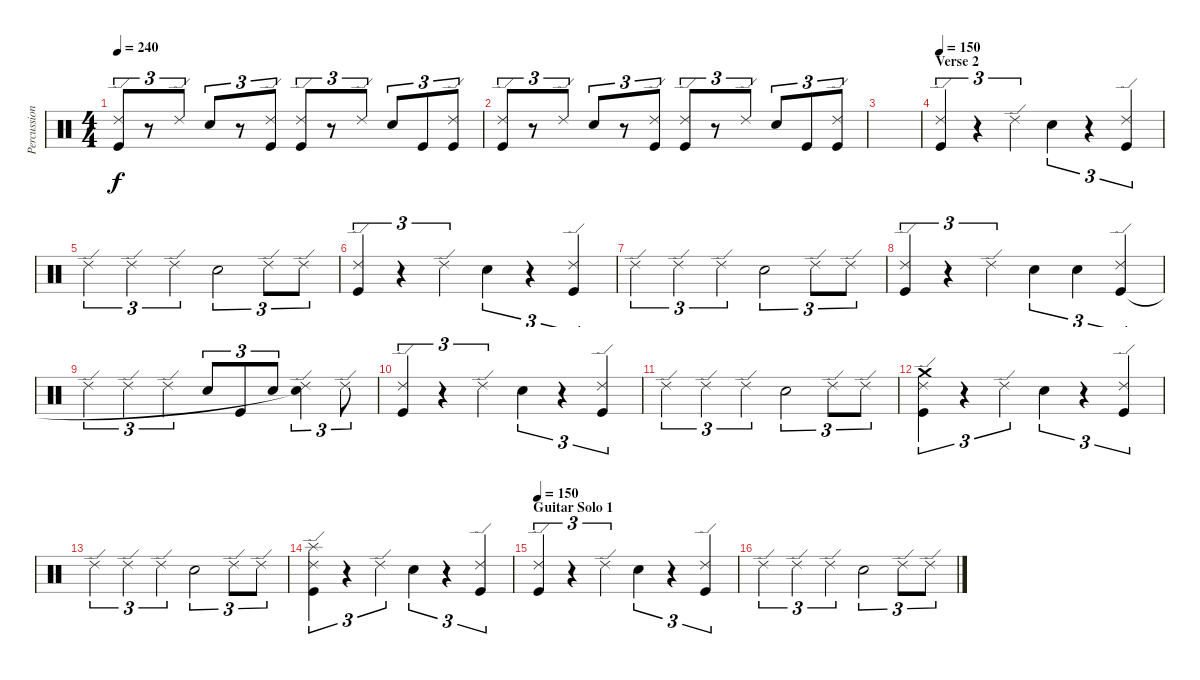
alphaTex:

\track ("Percussioni" "Percussion") {instrument percussion}
\staff {score}
\articulation defaults
\ts (4 4)
\tempo 240
\clef neutral
\ks c
("Ride (edge) 2" "Kick (hit)").8{tu (3 2) dy f} r.8{tu (3 2)} "Ride (edge) 2".8{tu (3 2)} "Electric Snare (hit)".8{tu (3 2)} r.8{tu (3 2)} ("Ride (edge) 2" "Kick (hit)").8{tu (3 2)} ("Ride (edge) 2" "Kick (hit)").8{tu (3 2)} r.8{tu (3 2)} "Ride (edge) 2".8{tu (3 2)} "Electric Snare (hit)".8{tu (3 2)} "Kick (hit)".8{tu (3 2)} ("Ride (edge) 2" "Kick (hit)").8{tu (3 2)} |
("Ride (edge) 2" "Kick (hit)").8{tu (3 2)} r.8{tu (3 2)} "Ride (edge) 2".8{tu (3 2)} "Electric Snare (hit)".8{tu (3 2)} r.8{tu (3 2)} ("Ride (edge) 2" "Kick (hit)").8{tu (3 2)} ("Ride (edge) 2" "Kick (hit)").8{tu (3 2)} r.8{tu (3 2)} "Ride (edge) 2".8{tu (3 2)} "Electric Snare (hit)".8{tu (3 2)} "Kick (hit)".8{tu (3 2)} ("Ride (edge) 2" "Kick (hit)").8{tu (3 2)} |
|
\section ("" "Verse 2")
\tempo 150
("Ride (edge) 2" "Kick (hit)").4{tu (3 2)} r.4{tu (3 2)} "Ride (edge) 2".4{tu (3 2)} "Electric Snare (hit)".4{tu (3 2)} r.4{tu (3 2)} ("Ride (edge) 2" "Kick (hit)").4{tu (3 2)} |
"Ride (edge) 2".4{tu (3 2)} "Ride (edge) 2".4{tu (3 2)} "Ride (edge) 2".4{tu (3 2)} "Electric Snare (hit)".2{tu (3 2)} "Ride (edge) 2".8{tu (3 2)} "Ride (edge) 2".8{tu (3 2)} |
("Ride (edge) 2" "Kick (hit)").4{tu (3 2)} r.4{tu (3 2)} "Ride (edge) 2".4{tu (3 2)} "Electric Snare (hit)".4{tu (3 2)} r.4{tu (3 2)} ("Ride (edge) 2" "Kick (hit)").4{tu (3 2)} |
"Ride (edge) 2".4{tu (3 2)} "Ride (edge) 2".4{tu (3 2)} "Ride (edge) 2".4{tu (3 2)} "Electric Snare (hit)".2{tu (3 2)} "Ride (edge) 2".8{tu (3 2)} "Ride (edge) 2".8{tu (3 2)} |
("Ride (edge) 2" "Kick (hit)").4{tu (3 2)} r.4{tu (3 2)} "Ride (edge) 2".4{tu (3 2)} "Electric Snare (hit)".4{tu (3 2)} "Electric Snare (hit)".4{tu (3 2)} ("Ride (edge) 2" "Kick (hit)").4{tu (3 2)} |
"Ride (edge) 2".4{tu (3 2)} "Ride (edge) 2".4{tu (3 2)} "Ride (edge) 2".4{tu (3 2)} "Electric Snare (hit)".8{tu (3 2)} "Kick (hit)".8{tu (3 2)} "Electric Snare (hit)".8{tu (3 2)} ("Ride (edge) 2" "Electric Snare (hit)"{t}).4{tu (3 2)} "Ride (edge) 2".8{tu (3 2)} |
("Ride (edge) 2" "Kick (hit)").4{tu (3 2)} r.4{tu (3 2)} "Ride (edge) 2".4{tu (3 2)} "Electric Snare (hit)".4{tu (3 2)} r.4{tu (3 2)} ("Ride (edge) 2" "Kick (hit)").4{tu (3 2)} |
"Ride (edge) 2".4{tu (3 2)} "Ride (edge) 2".4{tu (3 2)} "Ride (edge) 2".4{tu (3 2)} "Electric Snare (hit)".2{tu (3 2)} "Ride (edge) 2".8{tu (3 2)} "Ride (edge) 2".8{tu (3 2)} |
("Ride (edge) 2" "Crash medium (hit)" "Kick (hit)").4{tu (3 2)} r.4{tu (3 2)} "Ride (edge) 2".4{tu (3 2)} "Electric Snare (hit)".4{tu (3 2)} r.4{tu (3 2)} ("Ride (edge) 2" "Kick (hit)").4{tu (3 2)} |
"Ride (edge) 2".4{tu (3 2)} "Ride (edge) 2".4{tu (3 2)} "Ride (edge) 2".4{tu (3 2)} "Electric Snare (hit)".2{tu (3 2)} "Ride (edge) 2".8{tu (3 2)} "Ride (edge) 2".8{tu (3 2)} |
("Ride (edge) 2" "Splash (hit)" "Kick (hit)").4{tu (3 2)} r.4{tu (3 2)} "Ride (edge) 2".4{tu (3 2)} "Electric Snare (hit)".4{tu (3 2)} r.4{tu (3 2)} ("Ride (edge) 2" "Kick (hit)").4{tu (3 2)} |
\section ("" "Guitar Solo 1")
\tempo 150
("Ride (edge) 2" "Kick (hit)").4{tu (3 2)} r.4{tu (3 2)} "Ride (edge) 2".4{tu (3 2)} "Electric Snare (hit)".4{tu (3 2)} r.4{tu (3 2)} ("Ride (edge) 2" "Kick (hit)").4{tu (3 2)} |
"Ride (edge) 2".4{tu (3 2)} "Ride (edge) 2".4{tu (3 2)} "Ride (edge) 2".4{tu (3 2)} "Electric Snare (hit)".2{tu (3 2)} "Ride (edge) 2".8{tu (3 2)} "Ride (edge) 2".8{tu (3 2)}
